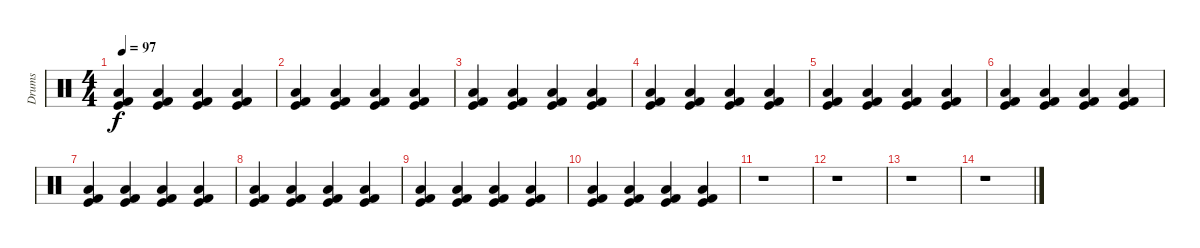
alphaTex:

\track ("Drums" "Drums") {instrument percussion}
\staff {score}
\articulation defaults
\ts (4 4)
\tempo 97
\clef neutral
\ks c
("Low Tom (hit)" "Kick (hit) 2" "Kick (hit)").4{dy f} ("Low Tom (hit)" "Kick (hit) 2" "Kick (hit)").4 ("Low Tom (hit)" "Kick (hit) 2" "Kick (hit)").4 ("Low Tom (hit)" "Kick (hit) 2" "Kick (hit)").4 |
("Low Tom (hit)" "Kick (hit) 2" "Kick (hit)").4 ("Low Tom (hit)" "Kick (hit) 2" "Kick (hit)").4 ("Low Tom (hit)" "Kick (hit) 2" "Kick (hit)").4 ("Low Tom (hit)" "Kick (hit) 2" "Kick (hit)").4 |
("Low Tom (hit)" "Kick (hit) 2" "Kick (hit)").4 ("Low Tom (hit)" "Kick (hit) 2" "Kick (hit)").4 ("Low Tom (hit)" "Kick (hit) 2" "Kick (hit)").4 ("Low Tom (hit)" "Kick (hit) 2" "Kick (hit)").4 |
("Low Tom (hit)" "Kick (hit) 2" "Kick (hit)").4 ("Low Tom (hit)" "Kick (hit) 2" "Kick (hit)").4 ("Low Tom (hit)" "Kick (hit) 2" "Kick (hit)").4 ("Low Tom (hit)" "Kick (hit) 2" "Kick (hit)").4 |
("Low Tom (hit)" "Kick (hit) 2" "Kick (hit)").4 ("Low Tom (hit)" "Kick (hit) 2" "Kick (hit)").4 ("Low Tom (hit)" "Kick (hit) 2" "Kick (hit)").4 ("Low Tom (hit)" "Kick (hit) 2" "Kick (hit)").4 |
("Low Tom (hit)" "Kick (hit) 2" "Kick (hit)").4 ("Low Tom (hit)" "Kick (hit) 2" "Kick (hit)").4 ("Low Tom (hit)" "Kick (hit) 2" "Kick (hit)").4 ("Low Tom (hit)" "Kick (hit) 2" "Kick (hit)").4 |
("Low Tom (hit)" "Kick (hit) 2" "Kick (hit)").4 ("Low Tom (hit)" "Kick (hit) 2" "Kick (hit)").4 ("Low Tom (hit)" "Kick (hit) 2" "Kick (hit)").4 ("Low Tom (hit)" "Kick (hit) 2" "Kick (hit)").4 |
("Low Tom (hit)" "Kick (hit) 2" "Kick (hit)").4 ("Low Tom (hit)" "Kick (hit) 2" "Kick (hit)").4 ("Low Tom (hit)" "Kick (hit) 2" "Kick (hit)").4 ("Low Tom (hit)" "Kick (hit) 2" "Kick (hit)").4 |
("Low Tom (hit)" "Kick (hit) 2" "Kick (hit)").4 ("Low Tom (hit)" "Kick (hit) 2" "Kick (hit)").4 ("Low Tom (hit)" "Kick (hit) 2" "Kick (hit)").4 ("Low Tom (hit)" "Kick (hit) 2" "Kick (hit)").4 |
("Low Tom (hit)" "Kick (hit) 2" "Kick (hit)").4 ("Low Tom (hit)" "Kick (hit) 2" "Kick (hit)").4 ("Low Tom (hit)" "Kick (hit) 2" "Kick (hit)").4 ("Low Tom (hit)" "Kick (hit) 2" "Kick (hit)").4 |
r.1 |
r.1 |
r.1 |
r.1
